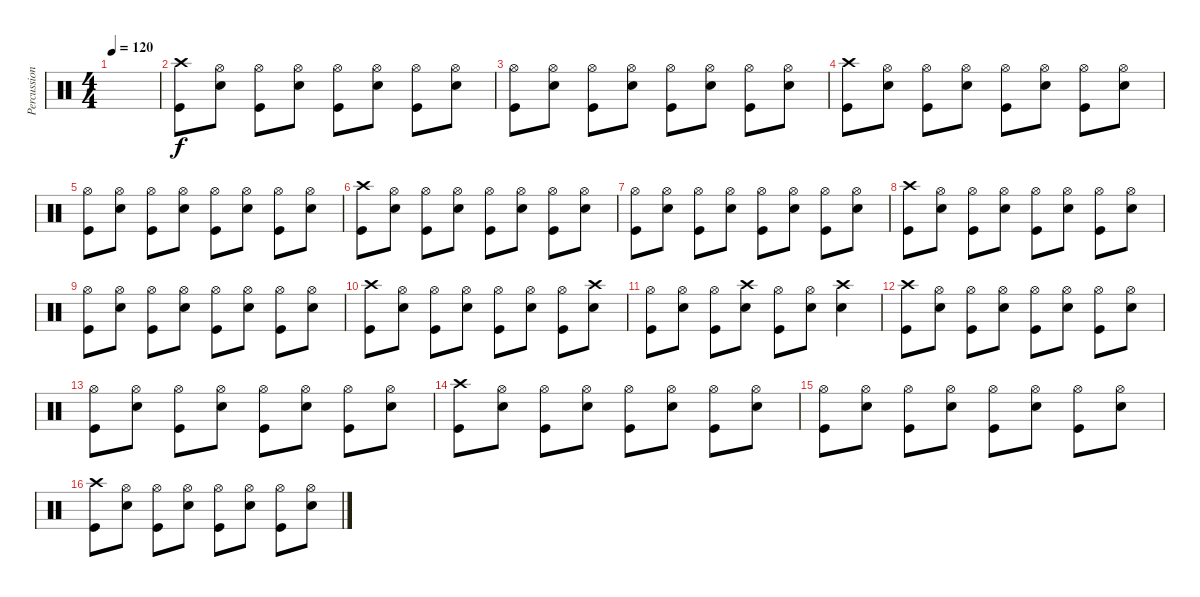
\track ("Percussion" "Percussion") {instrument percussion}
\staff {score}
\articulation defaults
\ts (4 4)
\tempo 120
\clef neutral
\ks c
|
("Kick (hit)" "Crash high (hit)").8 ("Electric Snare (hit)" "Hi-Hat (open)").8 ("Kick (hit)" "Hi-Hat (open)").8 ("Electric Snare (hit)" "Hi-Hat (open)").8 ("Kick (hit)" "Hi-Hat (open)").8 ("Electric Snare (hit)" "Hi-Hat (open)").8 ("Kick (hit)" "Hi-Hat (open)").8 ("Electric Snare (hit)" "Hi-Hat (open)").8 |
("Kick (hit)" "Hi-Hat (open)").8 ("Electric Snare (hit)" "Hi-Hat (open)").8 ("Kick (hit)" "Hi-Hat (open)").8 ("Electric Snare (hit)" "Hi-Hat (open)").8 ("Kick (hit)" "Hi-Hat (open)").8 ("Electric Snare (hit)" "Hi-Hat (open)").8 ("Kick (hit)" "Hi-Hat (open)").8 ("Electric Snare (hit)" "Hi-Hat (open)").8 |
("Kick (hit)" "Crash high (hit)").8 ("Electric Snare (hit)" "Hi-Hat (open)").8 ("Kick (hit)" "Hi-Hat (open)").8 ("Electric Snare (hit)" "Hi-Hat (open)").8 ("Kick (hit)" "Hi-Hat (open)").8 ("Electric Snare (hit)" "Hi-Hat (open)").8 ("Kick (hit)" "Hi-Hat (open)").8 ("Electric Snare (hit)" "Hi-Hat (open)").8 |
("Kick (hit)" "Hi-Hat (open)").8 ("Electric Snare (hit)" "Hi-Hat (open)").8 ("Kick (hit)" "Hi-Hat (open)").8 ("Electric Snare (hit)" "Hi-Hat (open)").8 ("Kick (hit)" "Hi-Hat (open)").8 ("Electric Snare (hit)" "Hi-Hat (open)").8 ("Kick (hit)" "Hi-Hat (open)").8 ("Electric Snare (hit)" "Hi-Hat (open)").8 |
("Kick (hit)" "Crash high (hit)").8 ("Electric Snare (hit)" "Hi-Hat (open)").8 ("Kick (hit)" "Hi-Hat (open)").8 ("Electric Snare (hit)" "Hi-Hat (open)").8 ("Kick (hit)" "Hi-Hat (open)").8 ("Electric Snare (hit)" "Hi-Hat (open)").8 ("Kick (hit)" "Hi-Hat (open)").8 ("Electric Snare (hit)" "Hi-Hat (open)").8 |
("Kick (hit)" "Hi-Hat (open)").8 ("Electric Snare (hit)" "Hi-Hat (open)").8 ("Kick (hit)" "Hi-Hat (open)").8 ("Electric Snare (hit)" "Hi-Hat (open)").8 ("Kick (hit)" "Hi-Hat (open)").8 ("Electric Snare (hit)" "Hi-Hat (open)").8 ("Kick (hit)" "Hi-Hat (open)").8 ("Electric Snare (hit)" "Hi-Hat (open)").8 |
("Kick (hit)" "Crash high (hit)").8 ("Electric Snare (hit)" "Hi-Hat (open)").8 ("Kick (hit)" "Hi-Hat (open)").8 ("Electric Snare (hit)" "Hi-Hat (open)").8 ("Kick (hit)" "Hi-Hat (open)").8 ("Electric Snare (hit)" "Hi-Hat (open)").8 ("Kick (hit)" "Hi-Hat (open)").8 ("Electric Snare (hit)" "Hi-Hat (open)").8 |
("Kick (hit)" "Hi-Hat (open)").8 ("Electric Snare (hit)" "Hi-Hat (open)").8 ("Kick (hit)" "Hi-Hat (open)").8 ("Electric Snare (hit)" "Hi-Hat (open)").8 ("Kick (hit)" "Hi-Hat (open)").8 ("Electric Snare (hit)" "Hi-Hat (open)").8 ("Kick (hit)" "Hi-Hat (open)").8 ("Electric Snare (hit)" "Hi-Hat (open)").8 |
("Kick (hit)" "Crash high (hit)").8 ("Electric Snare (hit)" "Hi-Hat (open)").8 ("Kick (hit)" "Hi-Hat (open)").8 ("Electric Snare (hit)" "Hi-Hat (open)").8 ("Kick (hit)" "Hi-Hat (open)").8 ("Electric Snare (hit)" "Hi-Hat (open)").8 ("Kick (hit)" "Hi-Hat (open)").8 ("Electric Snare (hit)" "Crash high (hit)").8 |
("Kick (hit)" "Hi-Hat (open)").8 ("Electric Snare (hit)" "Hi-Hat (open)").8 ("Kick (hit)" "Hi-Hat (open)").8 ("Electric Snare (hit)" "Crash high (hit)").8 ("Kick (hit)" "Hi-Hat (open)").8 ("Electric Snare (hit)" "Hi-Hat (open)").8 ("Electric Snare (hit)" "Crash high (hit)").4 |
("Kick (hit)" "Crash high (hit)").8 ("Electric Snare (hit)" "Hi-Hat (open)").8 ("Kick (hit)" "Hi-Hat (open)").8 ("Electric Snare (hit)" "Hi-Hat (open)").8 ("Kick (hit)" "Hi-Hat (open)").8 ("Electric Snare (hit)" "Hi-Hat (open)").8 ("Kick (hit)" "Hi-Hat (open)").8 ("Electric Snare (hit)" "Hi-Hat (open)").8 |
("Kick (hit)" "Hi-Hat (open)").8 ("Electric Snare (hit)" "Hi-Hat (open)").8 ("Kick (hit)" "Hi-Hat (open)").8 ("Electric Snare (hit)" "Hi-Hat (open)").8 ("Kick (hit)" "Hi-Hat (open)").8 ("Electric Snare (hit)" "Hi-Hat (open)").8 ("Kick (hit)" "Hi-Hat (open)").8 ("Electric Snare (hit)" "Hi-Hat (open)").8 |
("Kick (hit)" "Crash high (hit)").8 ("Electric Snare (hit)" "Hi-Hat (open)").8 ("Kick (hit)" "Hi-Hat (open)").8 ("Electric Snare (hit)" "Hi-Hat (open)").8 ("Kick (hit)" "Hi-Hat (open)").8 ("Electric Snare (hit)" "Hi-Hat (open)").8 ("Kick (hit)" "Hi-Hat (open)").8 ("Electric Snare (hit)" "Hi-Hat (open)").8 |
("Kick (hit)" "Hi-Hat (open)").8 ("Electric Snare (hit)" "Hi-Hat (open)").8 ("Kick (hit)" "Hi-Hat (open)").8 ("Electric Snare (hit)" "Hi-Hat (open)").8 ("Kick (hit)" "Hi-Hat (open)").8 ("Electric Snare (hit)" "Hi-Hat (open)").8 ("Kick (hit)" "Hi-Hat (open)").8 ("Electric Snare (hit)" "Hi-Hat (open)").8 |
("Kick (hit)" "Crash high (hit)").8 ("Electric Snare (hit)" "Hi-Hat (open)").8 ("Kick (hit)" "Hi-Hat (open)").8 ("Electric Snare (hit)" "Hi-Hat (open)").8 ("Kick (hit)" "Hi-Hat (open)").8 ("Electric Snare (hit)" "Hi-Hat (open)").8 ("Kick (hit)" "Hi-Hat (open)").8 ("Electric Snare (hit)" "Hi-Hat (open)").8
